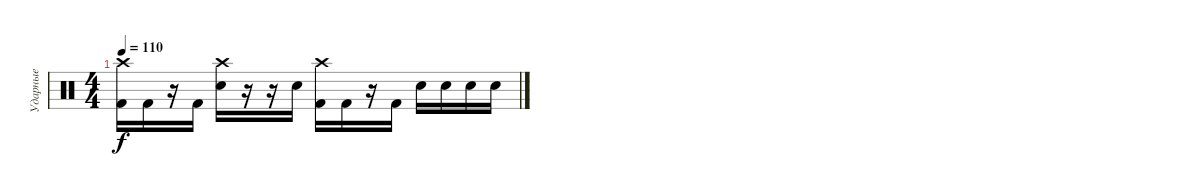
\track ("Ударные" "Ударные") {instrument percussion}
\staff {score}
\articulation defaults
\ts (4 4)
\tempo 110
\clef neutral
\ks c
("Crash high (hit)" "Kick (hit) 2").16{dy f} "Kick (hit) 2".16 r.16 "Kick (hit) 2".16 ("Crash high (hit)" "Snare (hit) 2").16 r.16 r.16 "Snare (hit) 2".16 ("Crash high (hit)" "Kick (hit) 2").16 "Kick (hit) 2".16 r.16 "Kick (hit) 2".16 "Snare (hit) 2".16 "Snare (hit) 2".16 "Snare (hit) 2".16 "Snare (hit) 2".16
